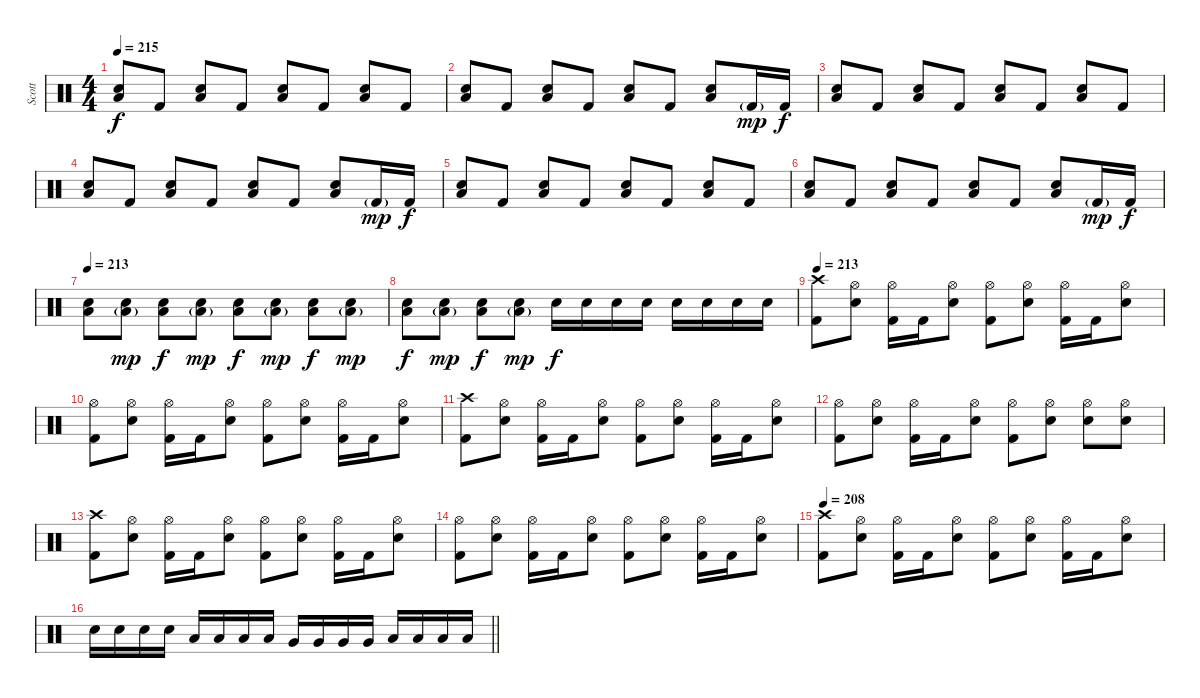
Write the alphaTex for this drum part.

\track ("Scott" "Scott") {instrument percussion}
\staff {score}
\articulation defaults
\ts (4 4)
\section ("" "")
\tempo 215
\clef neutral
\ks c
("Electric Snare (hit)" "Low Floor Tom (hit)").8{dy f} "Kick (hit) 2".8 ("Electric Snare (hit)" "Low Floor Tom (hit)").8 "Kick (hit) 2".8 ("Electric Snare (hit)" "Low Floor Tom (hit)").8 "Kick (hit) 2".8 ("Electric Snare (hit)" "Low Floor Tom (hit)").8 "Kick (hit) 2".8 |
("Electric Snare (hit)" "Low Floor Tom (hit)").8 "Kick (hit) 2".8 ("Electric Snare (hit)" "Low Floor Tom (hit)").8 "Kick (hit) 2".8 ("Electric Snare (hit)" "Low Floor Tom (hit)").8 "Kick (hit) 2".8 ("Electric Snare (hit)" "Low Floor Tom (hit)").8 "Kick (hit) 2"{g}.16{dy mp} "Kick (hit) 2".16{dy f} |
("Electric Snare (hit)" "Low Floor Tom (hit)").8 "Kick (hit) 2".8 ("Electric Snare (hit)" "Low Floor Tom (hit)").8 "Kick (hit) 2".8 ("Electric Snare (hit)" "Low Floor Tom (hit)").8 "Kick (hit) 2".8 ("Electric Snare (hit)" "Low Floor Tom (hit)").8 "Kick (hit) 2".8 |
("Electric Snare (hit)" "Low Floor Tom (hit)").8 "Kick (hit) 2".8 ("Electric Snare (hit)" "Low Floor Tom (hit)").8 "Kick (hit) 2".8 ("Electric Snare (hit)" "Low Floor Tom (hit)").8 "Kick (hit) 2".8 ("Electric Snare (hit)" "Low Floor Tom (hit)").8 "Kick (hit) 2"{g}.16{dy mp} "Kick (hit) 2".16{dy f} |
("Electric Snare (hit)" "Low Floor Tom (hit)").8 "Kick (hit) 2".8 ("Electric Snare (hit)" "Low Floor Tom (hit)").8 "Kick (hit) 2".8 ("Electric Snare (hit)" "Low Floor Tom (hit)").8 "Kick (hit) 2".8 ("Electric Snare (hit)" "Low Floor Tom (hit)").8 "Kick (hit) 2".8 |
("Electric Snare (hit)" "Low Floor Tom (hit)").8 "Kick (hit) 2".8 ("Electric Snare (hit)" "Low Floor Tom (hit)").8 "Kick (hit) 2".8 ("Electric Snare (hit)" "Low Floor Tom (hit)").8 "Kick (hit) 2".8 ("Electric Snare (hit)" "Low Floor Tom (hit)").8 "Kick (hit) 2"{g}.16{dy mp} "Kick (hit) 2".16{dy f} |
\tempo 213
("Electric Snare (hit)" "Low Floor Tom (hit)").8 ("Electric Snare (hit)" "Low Floor Tom (hit)"{g}).8{dy mp} ("Electric Snare (hit)" "Low Floor Tom (hit)").8{dy f} ("Electric Snare (hit)" "Low Floor Tom (hit)"{g}).8{dy mp} ("Electric Snare (hit)" "Low Floor Tom (hit)").8{dy f} ("Electric Snare (hit)" "Low Floor Tom (hit)"{g}).8{dy mp} ("Electric Snare (hit)" "Low Floor Tom (hit)").8{dy f} ("Electric Snare (hit)" "Low Floor Tom (hit)"{g}).8{dy mp} |
("Electric Snare (hit)" "Low Floor Tom (hit)").8{dy f} ("Electric Snare (hit)" "Low Floor Tom (hit)"{g}).8{dy mp} ("Electric Snare (hit)" "Low Floor Tom (hit)").8{dy f} ("Electric Snare (hit)" "Low Floor Tom (hit)"{g}).8{dy mp} "Electric Snare (hit)".16{dy f} "Electric Snare (hit)".16 "Electric Snare (hit)".16 "Electric Snare (hit)".16 "Electric Snare (hit)".16 "Electric Snare (hit)".16 "Electric Snare (hit)".16 "Electric Snare (hit)".16 |
\tempo 213
("Crash high (hit)" "Kick (hit) 2").8 ("Hi-Hat (open)" "Electric Snare (hit)").8 ("Hi-Hat (open)" "Kick (hit) 2").16 "Kick (hit) 2".16 ("Hi-Hat (open)" "Electric Snare (hit)").8 ("Hi-Hat (open)" "Kick (hit) 2").8 ("Hi-Hat (open)" "Electric Snare (hit)").8 ("Hi-Hat (open)" "Kick (hit) 2").16 "Kick (hit) 2".16 ("Hi-Hat (open)" "Electric Snare (hit)").8 |
("Hi-Hat (open)" "Kick (hit) 2").8 ("Hi-Hat (open)" "Electric Snare (hit)").8 ("Hi-Hat (open)" "Kick (hit) 2").16 "Kick (hit) 2".16 ("Hi-Hat (open)" "Electric Snare (hit)").8 ("Hi-Hat (open)" "Kick (hit) 2").8 ("Hi-Hat (open)" "Electric Snare (hit)").8 ("Hi-Hat (open)" "Kick (hit) 2").16 "Kick (hit) 2".16 ("Hi-Hat (open)" "Electric Snare (hit)").8 |
("Crash high (hit)" "Kick (hit) 2").8 ("Hi-Hat (open)" "Electric Snare (hit)").8 ("Hi-Hat (open)" "Kick (hit) 2").16 "Kick (hit) 2".16 ("Hi-Hat (open)" "Electric Snare (hit)").8 ("Hi-Hat (open)" "Kick (hit) 2").8 ("Hi-Hat (open)" "Electric Snare (hit)").8 ("Hi-Hat (open)" "Kick (hit) 2").16 "Kick (hit) 2".16 ("Hi-Hat (open)" "Electric Snare (hit)").8 |
("Hi-Hat (open)" "Kick (hit) 2").8 ("Hi-Hat (open)" "Electric Snare (hit)").8 ("Hi-Hat (open)" "Kick (hit) 2").16 "Kick (hit) 2".16 ("Hi-Hat (open)" "Electric Snare (hit)").8 ("Hi-Hat (open)" "Kick (hit) 2").8 ("Hi-Hat (open)" "Electric Snare (hit)").8 ("Hi-Hat (open)" "Electric Snare (hit)").8 ("Hi-Hat (open)" "Electric Snare (hit)").8 |
("Crash high (hit)" "Kick (hit) 2").8 ("Hi-Hat (open)" "Electric Snare (hit)").8 ("Hi-Hat (open)" "Kick (hit) 2").16 "Kick (hit) 2".16 ("Hi-Hat (open)" "Electric Snare (hit)").8 ("Hi-Hat (open)" "Kick (hit) 2").8 ("Hi-Hat (open)" "Electric Snare (hit)").8 ("Hi-Hat (open)" "Kick (hit) 2").16 "Kick (hit) 2".16 ("Hi-Hat (open)" "Electric Snare (hit)").8 |
("Hi-Hat (open)" "Kick (hit) 2").8 ("Hi-Hat (open)" "Electric Snare (hit)").8 ("Hi-Hat (open)" "Kick (hit) 2").16 "Kick (hit) 2".16 ("Hi-Hat (open)" "Electric Snare (hit)").8 ("Hi-Hat (open)" "Kick (hit) 2").8 ("Hi-Hat (open)" "Electric Snare (hit)").8 ("Hi-Hat (open)" "Kick (hit) 2").16 "Kick (hit) 2".16 ("Hi-Hat (open)" "Electric Snare (hit)").8 |
\tempo 208
("Crash high (hit)" "Kick (hit) 2").8 ("Hi-Hat (open)" "Electric Snare (hit)").8 ("Hi-Hat (open)" "Kick (hit) 2").16 "Kick (hit) 2".16 ("Hi-Hat (open)" "Electric Snare (hit)").8 ("Hi-Hat (open)" "Kick (hit) 2").8 ("Hi-Hat (open)" "Electric Snare (hit)").8 ("Hi-Hat (open)" "Kick (hit) 2").16 "Kick (hit) 2".16 ("Hi-Hat (open)" "Electric Snare (hit)").8 |
\barLineRight lightlight "Electric Snare (hit)".16 "Electric Snare (hit)".16 "Electric Snare (hit)".16 "Electric Snare (hit)".16 "Low Tom (hit)".16 "Low Tom (hit)".16 "Low Tom (hit)".16 "Low Tom (hit)".16 "Very Low Tom (hit)".16 "Very Low Tom (hit)".16 "Very Low Tom (hit)".16 "Very Low Tom (hit)".16 "Low Floor Tom (hit)".16 "Low Floor Tom (hit)".16 "Low Floor Tom (hit)".16 "Low Floor Tom (hit)".16
